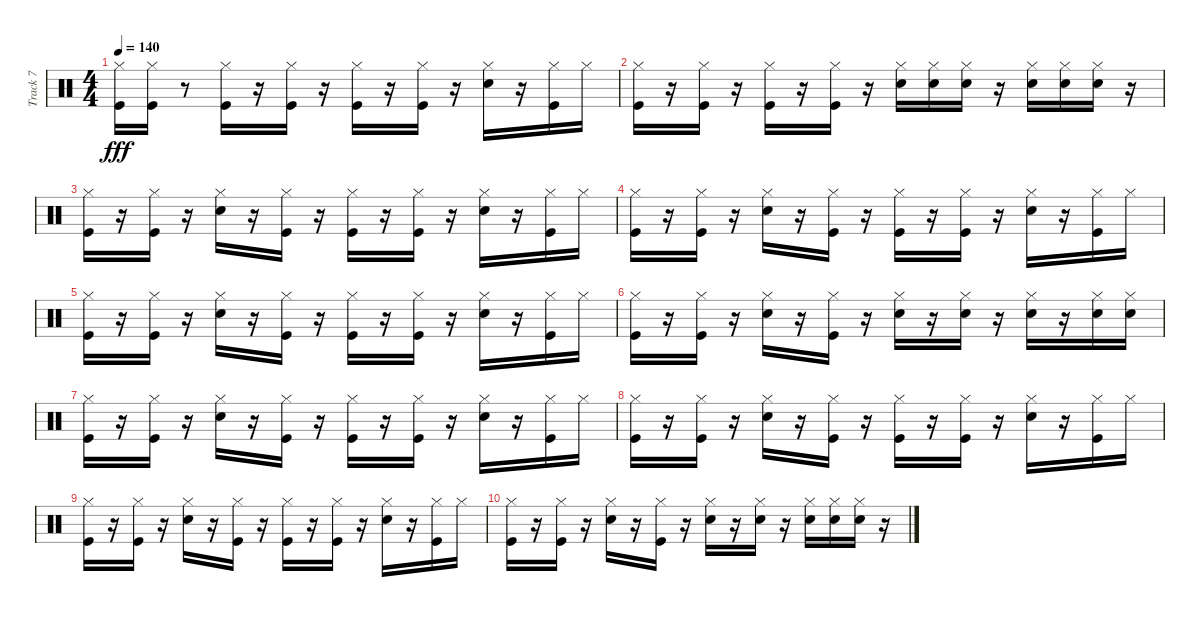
\track ("Track 7" "Track 7") {instrument percussion}
\staff {score}
\articulation defaults
\ts (4 4)
\tempo 140
\clef neutral
\ks c
("Kick (hit)" "Hi-Hat (closed)").16{dy fff} ("Kick (hit)" "Hi-Hat (closed)").16 r.8 ("Kick (hit)" "Hi-Hat (closed)").16 r.16 ("Kick (hit)" "Hi-Hat (closed)").16 r.16 ("Kick (hit)" "Hi-Hat (closed)").16 r.16 ("Kick (hit)" "Hi-Hat (closed)").16 r.16 ("Snare (hit) 2" "Hi-Hat (closed)").16 r.16 ("Kick (hit)" "Hi-Hat (closed)").16 "Hi-Hat (closed)".16 |
("Kick (hit)" "Hi-Hat (closed)").16 r.16 ("Kick (hit)" "Hi-Hat (closed)").16 r.16 ("Kick (hit)" "Hi-Hat (closed)").16 r.16 ("Kick (hit)" "Hi-Hat (closed)").16 r.16 ("Snare (hit) 2" "Hi-Hat (closed)").16 ("Snare (hit) 2" "Hi-Hat (closed)").16 ("Snare (hit) 2" "Hi-Hat (closed)").16 r.16 ("Snare (hit) 2" "Hi-Hat (closed)").16 ("Snare (hit) 2" "Hi-Hat (closed)").16 ("Snare (hit) 2" "Hi-Hat (closed)").16 r.16 |
("Kick (hit)" "Hi-Hat (closed)").16 r.16 ("Kick (hit)" "Hi-Hat (closed)").16 r.16 ("Snare (hit) 2" "Hi-Hat (closed)").16 r.16 ("Kick (hit)" "Hi-Hat (closed)").16 r.16 ("Kick (hit)" "Hi-Hat (closed)").16 r.16 ("Kick (hit)" "Hi-Hat (closed)").16 r.16 ("Snare (hit) 2" "Hi-Hat (closed)").16 r.16 ("Kick (hit)" "Hi-Hat (closed)").16 "Hi-Hat (closed)".16 |
("Kick (hit)" "Hi-Hat (closed)").16 r.16 ("Kick (hit)" "Hi-Hat (closed)").16 r.16 ("Snare (hit) 2" "Hi-Hat (closed)").16 r.16 ("Kick (hit)" "Hi-Hat (closed)").16 r.16 ("Kick (hit)" "Hi-Hat (closed)").16 r.16 ("Kick (hit)" "Hi-Hat (closed)").16 r.16 ("Snare (hit) 2" "Hi-Hat (closed)").16 r.16 ("Kick (hit)" "Hi-Hat (closed)").16 "Hi-Hat (closed)".16 |
("Kick (hit)" "Hi-Hat (closed)").16 r.16 ("Kick (hit)" "Hi-Hat (closed)").16 r.16 ("Snare (hit) 2" "Hi-Hat (closed)").16 r.16 ("Kick (hit)" "Hi-Hat (closed)").16 r.16 ("Kick (hit)" "Hi-Hat (closed)").16 r.16 ("Kick (hit)" "Hi-Hat (closed)").16 r.16 ("Snare (hit) 2" "Hi-Hat (closed)").16 r.16 ("Kick (hit)" "Hi-Hat (closed)").16 "Hi-Hat (closed)".16 |
("Kick (hit)" "Hi-Hat (closed)").16 r.16 ("Kick (hit)" "Hi-Hat (closed)").16 r.16 ("Snare (hit) 2" "Hi-Hat (closed)").16 r.16 ("Kick (hit)" "Hi-Hat (closed)").16 r.16 ("Snare (hit) 2" "Hi-Hat (closed)").16 r.16 ("Snare (hit) 2" "Hi-Hat (closed)").16 r.16 ("Snare (hit) 2" "Hi-Hat (closed)").16 r.16 ("Snare (hit) 2" "Hi-Hat (closed)").16 ("Snare (hit) 2" "Hi-Hat (closed)").16 |
("Kick (hit)" "Hi-Hat (closed)").16 r.16 ("Kick (hit)" "Hi-Hat (closed)").16 r.16 ("Snare (hit) 2" "Hi-Hat (closed)").16 r.16 ("Kick (hit)" "Hi-Hat (closed)").16 r.16 ("Kick (hit)" "Hi-Hat (closed)").16 r.16 ("Kick (hit)" "Hi-Hat (closed)").16 r.16 ("Snare (hit) 2" "Hi-Hat (closed)").16 r.16 ("Kick (hit)" "Hi-Hat (closed)").16 "Hi-Hat (closed)".16 |
("Kick (hit)" "Hi-Hat (closed)").16 r.16 ("Kick (hit)" "Hi-Hat (closed)").16 r.16 ("Snare (hit) 2" "Hi-Hat (closed)").16 r.16 ("Kick (hit)" "Hi-Hat (closed)").16 r.16 ("Kick (hit)" "Hi-Hat (closed)").16 r.16 ("Kick (hit)" "Hi-Hat (closed)").16 r.16 ("Snare (hit) 2" "Hi-Hat (closed)").16 r.16 ("Kick (hit)" "Hi-Hat (closed)").16 "Hi-Hat (closed)".16 |
("Kick (hit)" "Hi-Hat (closed)").16 r.16 ("Kick (hit)" "Hi-Hat (closed)").16 r.16 ("Snare (hit) 2" "Hi-Hat (closed)").16 r.16 ("Kick (hit)" "Hi-Hat (closed)").16 r.16 ("Kick (hit)" "Hi-Hat (closed)").16 r.16 ("Kick (hit)" "Hi-Hat (closed)").16 r.16 ("Snare (hit) 2" "Hi-Hat (closed)").16 r.16 ("Kick (hit)" "Hi-Hat (closed)").16 "Hi-Hat (closed)".16 |
("Kick (hit)" "Hi-Hat (closed)").16 r.16 ("Kick (hit)" "Hi-Hat (closed)").16 r.16 ("Snare (hit) 2" "Hi-Hat (closed)").16 r.16 ("Kick (hit)" "Hi-Hat (closed)").16 r.16 ("Snare (hit) 2" "Hi-Hat (closed)").16 r.16 ("Snare (hit) 2" "Hi-Hat (closed)").16 r.16 ("Snare (hit) 2" "Hi-Hat (closed)").16 ("Snare (hit) 2" "Hi-Hat (closed)").16 ("Snare (hit) 2" "Hi-Hat (closed)").16 r.16
